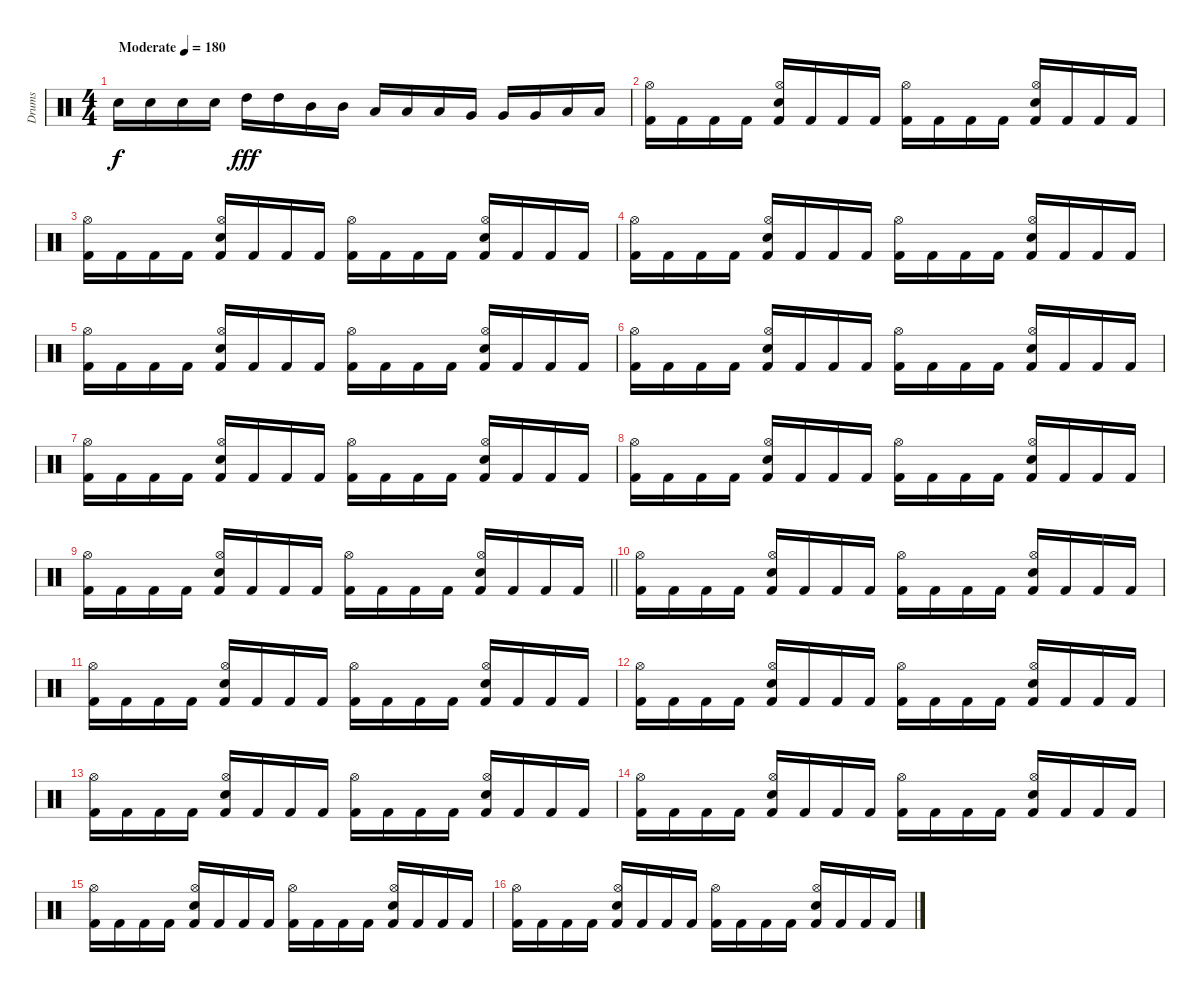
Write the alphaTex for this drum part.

\track ("Drums" "Drums") {instrument percussion}
\staff {score}
\articulation defaults
\ts (4 4)
\tempo (180 "Moderate")
\clef neutral
\ks c "Electric Snare (hit)".16{dy f} "Electric Snare (hit)".16 "Electric Snare (hit)".16 "Electric Snare (hit)".16 "High Tom (hit)".16{dy fff} "High Tom (hit)".16 "Mid Tom (hit)".16 "Mid Tom (hit)".16 "Low Tom (hit)".16 "Low Tom (hit)".16 "Low Tom (hit)".16 "Very Low Tom (hit)".16 "Very Low Tom (hit)".16 "Very Low Tom (hit)".16 "Low Floor Tom (hit)".16 "Low Floor Tom (hit)".16
|
("Hi-Hat (open)" "Kick (hit) 2").16 "Kick (hit) 2".16 "Kick (hit) 2".16 "Kick (hit) 2".16 ("Hi-Hat (open)" "Electric Snare (hit)" "Kick (hit) 2").16 "Kick (hit) 2".16 "Kick (hit) 2".16 "Kick (hit) 2".16 ("Hi-Hat (open)" "Kick (hit) 2").16 "Kick (hit) 2".16 "Kick (hit) 2".16 "Kick (hit) 2".16 ("Hi-Hat (open)" "Electric Snare (hit)" "Kick (hit) 2").16 "Kick (hit) 2".16 "Kick (hit) 2".16 "Kick (hit) 2".16 |
("Hi-Hat (open)" "Kick (hit) 2").16 "Kick (hit) 2".16 "Kick (hit) 2".16 "Kick (hit) 2".16 ("Hi-Hat (open)" "Electric Snare (hit)" "Kick (hit) 2").16 "Kick (hit) 2".16 "Kick (hit) 2".16 "Kick (hit) 2".16 ("Hi-Hat (open)" "Kick (hit) 2").16 "Kick (hit) 2".16 "Kick (hit) 2".16 "Kick (hit) 2".16 ("Hi-Hat (open)" "Electric Snare (hit)" "Kick (hit) 2").16 "Kick (hit) 2".16 "Kick (hit) 2".16 "Kick (hit) 2".16 |
("Hi-Hat (open)" "Kick (hit) 2").16 "Kick (hit) 2".16 "Kick (hit) 2".16 "Kick (hit) 2".16 ("Hi-Hat (open)" "Electric Snare (hit)" "Kick (hit) 2").16 "Kick (hit) 2".16 "Kick (hit) 2".16 "Kick (hit) 2".16 ("Hi-Hat (open)" "Kick (hit) 2").16 "Kick (hit) 2".16 "Kick (hit) 2".16 "Kick (hit) 2".16 ("Hi-Hat (open)" "Electric Snare (hit)" "Kick (hit) 2").16 "Kick (hit) 2".16 "Kick (hit) 2".16 "Kick (hit) 2".16 |
("Hi-Hat (open)" "Kick (hit) 2").16 "Kick (hit) 2".16 "Kick (hit) 2".16 "Kick (hit) 2".16 ("Hi-Hat (open)" "Electric Snare (hit)" "Kick (hit) 2").16 "Kick (hit) 2".16 "Kick (hit) 2".16 "Kick (hit) 2".16 ("Hi-Hat (open)" "Kick (hit) 2").16 "Kick (hit) 2".16 "Kick (hit) 2".16 "Kick (hit) 2".16 ("Hi-Hat (open)" "Electric Snare (hit)" "Kick (hit) 2").16 "Kick (hit) 2".16 "Kick (hit) 2".16 "Kick (hit) 2".16 |
("Hi-Hat (open)" "Kick (hit) 2").16 "Kick (hit) 2".16 "Kick (hit) 2".16 "Kick (hit) 2".16 ("Hi-Hat (open)" "Electric Snare (hit)" "Kick (hit) 2").16 "Kick (hit) 2".16 "Kick (hit) 2".16 "Kick (hit) 2".16 ("Hi-Hat (open)" "Kick (hit) 2").16 "Kick (hit) 2".16 "Kick (hit) 2".16 "Kick (hit) 2".16 ("Hi-Hat (open)" "Electric Snare (hit)" "Kick (hit) 2").16 "Kick (hit) 2".16 "Kick (hit) 2".16 "Kick (hit) 2".16 |
("Hi-Hat (open)" "Kick (hit) 2").16 "Kick (hit) 2".16 "Kick (hit) 2".16 "Kick (hit) 2".16 ("Hi-Hat (open)" "Electric Snare (hit)" "Kick (hit) 2").16 "Kick (hit) 2".16 "Kick (hit) 2".16 "Kick (hit) 2".16 ("Hi-Hat (open)" "Kick (hit) 2").16 "Kick (hit) 2".16 "Kick (hit) 2".16 "Kick (hit) 2".16 ("Hi-Hat (open)" "Electric Snare (hit)" "Kick (hit) 2").16 "Kick (hit) 2".16 "Kick (hit) 2".16 "Kick (hit) 2".16 |
("Hi-Hat (open)" "Kick (hit) 2").16 "Kick (hit) 2".16 "Kick (hit) 2".16 "Kick (hit) 2".16 ("Hi-Hat (open)" "Electric Snare (hit)" "Kick (hit) 2").16 "Kick (hit) 2".16 "Kick (hit) 2".16 "Kick (hit) 2".16 ("Hi-Hat (open)" "Kick (hit) 2").16 "Kick (hit) 2".16 "Kick (hit) 2".16 "Kick (hit) 2".16 ("Hi-Hat (open)" "Electric Snare (hit)" "Kick (hit) 2").16 "Kick (hit) 2".16 "Kick (hit) 2".16 "Kick (hit) 2".16 |
\barLineRight lightlight
("Hi-Hat (open)" "Kick (hit) 2").16 "Kick (hit) 2".16 "Kick (hit) 2".16 "Kick (hit) 2".16 ("Hi-Hat (open)" "Electric Snare (hit)" "Kick (hit) 2").16 "Kick (hit) 2".16 "Kick (hit) 2".16 "Kick (hit) 2".16 ("Hi-Hat (open)" "Kick (hit) 2").16 "Kick (hit) 2".16 "Kick (hit) 2".16 "Kick (hit) 2".16 ("Hi-Hat (open)" "Electric Snare (hit)" "Kick (hit) 2").16 "Kick (hit) 2".16 "Kick (hit) 2".16 "Kick (hit) 2".16 |
\section ("" "")
("Hi-Hat (open)" "Kick (hit) 2").16 "Kick (hit) 2".16 "Kick (hit) 2".16 "Kick (hit) 2".16 ("Hi-Hat (open)" "Electric Snare (hit)" "Kick (hit) 2").16 "Kick (hit) 2".16 "Kick (hit) 2".16 "Kick (hit) 2".16 ("Hi-Hat (open)" "Kick (hit) 2").16 "Kick (hit) 2".16 "Kick (hit) 2".16 "Kick (hit) 2".16 ("Hi-Hat (open)" "Electric Snare (hit)" "Kick (hit) 2").16 "Kick (hit) 2".16 "Kick (hit) 2".16 "Kick (hit) 2".16 |
("Hi-Hat (open)" "Kick (hit) 2").16 "Kick (hit) 2".16 "Kick (hit) 2".16 "Kick (hit) 2".16 ("Hi-Hat (open)" "Electric Snare (hit)" "Kick (hit) 2").16 "Kick (hit) 2".16 "Kick (hit) 2".16 "Kick (hit) 2".16 ("Hi-Hat (open)" "Kick (hit) 2").16 "Kick (hit) 2".16 "Kick (hit) 2".16 "Kick (hit) 2".16 ("Hi-Hat (open)" "Electric Snare (hit)" "Kick (hit) 2").16 "Kick (hit) 2".16 "Kick (hit) 2".16 "Kick (hit) 2".16 |
("Hi-Hat (open)" "Kick (hit) 2").16 "Kick (hit) 2".16 "Kick (hit) 2".16 "Kick (hit) 2".16 ("Hi-Hat (open)" "Electric Snare (hit)" "Kick (hit) 2").16 "Kick (hit) 2".16 "Kick (hit) 2".16 "Kick (hit) 2".16 ("Hi-Hat (open)" "Kick (hit) 2").16 "Kick (hit) 2".16 "Kick (hit) 2".16 "Kick (hit) 2".16 ("Hi-Hat (open)" "Electric Snare (hit)" "Kick (hit) 2").16 "Kick (hit) 2".16 "Kick (hit) 2".16 "Kick (hit) 2".16 |
("Hi-Hat (open)" "Kick (hit) 2").16 "Kick (hit) 2".16 "Kick (hit) 2".16 "Kick (hit) 2".16 ("Hi-Hat (open)" "Electric Snare (hit)" "Kick (hit) 2").16 "Kick (hit) 2".16 "Kick (hit) 2".16 "Kick (hit) 2".16 ("Hi-Hat (open)" "Kick (hit) 2").16 "Kick (hit) 2".16 "Kick (hit) 2".16 "Kick (hit) 2".16 ("Hi-Hat (open)" "Electric Snare (hit)" "Kick (hit) 2").16 "Kick (hit) 2".16 "Kick (hit) 2".16 "Kick (hit) 2".16 |
("Hi-Hat (open)" "Kick (hit) 2").16 "Kick (hit) 2".16 "Kick (hit) 2".16 "Kick (hit) 2".16 ("Hi-Hat (open)" "Electric Snare (hit)" "Kick (hit) 2").16 "Kick (hit) 2".16 "Kick (hit) 2".16 "Kick (hit) 2".16 ("Hi-Hat (open)" "Kick (hit) 2").16 "Kick (hit) 2".16 "Kick (hit) 2".16 "Kick (hit) 2".16 ("Hi-Hat (open)" "Electric Snare (hit)" "Kick (hit) 2").16 "Kick (hit) 2".16 "Kick (hit) 2".16 "Kick (hit) 2".16 |
("Hi-Hat (open)" "Kick (hit) 2").16 "Kick (hit) 2".16 "Kick (hit) 2".16 "Kick (hit) 2".16 ("Hi-Hat (open)" "Electric Snare (hit)" "Kick (hit) 2").16 "Kick (hit) 2".16 "Kick (hit) 2".16 "Kick (hit) 2".16 ("Hi-Hat (open)" "Kick (hit) 2").16 "Kick (hit) 2".16 "Kick (hit) 2".16 "Kick (hit) 2".16 ("Hi-Hat (open)" "Electric Snare (hit)" "Kick (hit) 2").16 "Kick (hit) 2".16 "Kick (hit) 2".16 "Kick (hit) 2".16 |
("Hi-Hat (open)" "Kick (hit) 2").16 "Kick (hit) 2".16 "Kick (hit) 2".16 "Kick (hit) 2".16 ("Hi-Hat (open)" "Electric Snare (hit)" "Kick (hit) 2").16 "Kick (hit) 2".16 "Kick (hit) 2".16 "Kick (hit) 2".16 ("Hi-Hat (open)" "Kick (hit) 2").16 "Kick (hit) 2".16 "Kick (hit) 2".16 "Kick (hit) 2".16 ("Hi-Hat (open)" "Electric Snare (hit)" "Kick (hit) 2").16 "Kick (hit) 2".16 "Kick (hit) 2".16 "Kick (hit) 2".16
